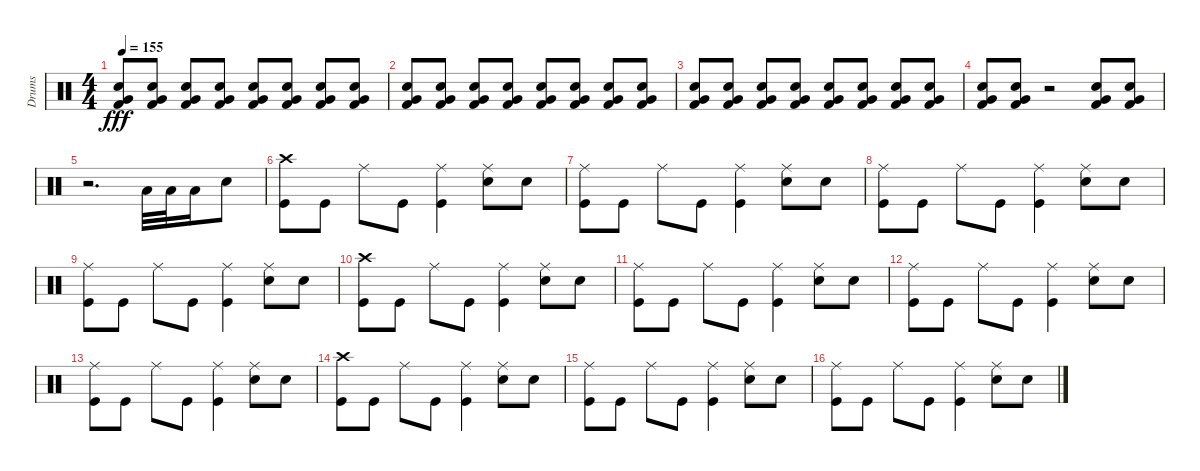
\track ("Drums               " "Drums     ") {instrument percussion}
\staff {score}
\articulation defaults
\ts (4 4)
\tempo 155
\clef neutral
\ks c
("Very Low Tom (hit)" "Electric Snare (hit)" "Kick (hit) 2").8{dy fff} ("Very Low Tom (hit)" "Electric Snare (hit)" "Kick (hit) 2").8 ("Very Low Tom (hit)" "Electric Snare (hit)" "Kick (hit) 2").8 ("Very Low Tom (hit)" "Electric Snare (hit)" "Kick (hit) 2").8 ("Very Low Tom (hit)" "Electric Snare (hit)" "Kick (hit) 2").8 ("Very Low Tom (hit)" "Electric Snare (hit)" "Kick (hit) 2").8 ("Very Low Tom (hit)" "Electric Snare (hit)" "Kick (hit) 2").8 ("Very Low Tom (hit)" "Electric Snare (hit)" "Kick (hit) 2").8 |
("Very Low Tom (hit)" "Electric Snare (hit)" "Kick (hit) 2").8 ("Very Low Tom (hit)" "Electric Snare (hit)" "Kick (hit) 2").8 ("Very Low Tom (hit)" "Electric Snare (hit)" "Kick (hit) 2").8 ("Very Low Tom (hit)" "Electric Snare (hit)" "Kick (hit) 2").8 ("Very Low Tom (hit)" "Electric Snare (hit)" "Kick (hit) 2").8 ("Very Low Tom (hit)" "Electric Snare (hit)" "Kick (hit) 2").8 ("Very Low Tom (hit)" "Electric Snare (hit)" "Kick (hit) 2").8 ("Very Low Tom (hit)" "Electric Snare (hit)" "Kick (hit) 2").8 |
("Very Low Tom (hit)" "Electric Snare (hit)" "Kick (hit) 2").8 ("Very Low Tom (hit)" "Electric Snare (hit)" "Kick (hit) 2").8 ("Very Low Tom (hit)" "Electric Snare (hit)" "Kick (hit) 2").8 ("Very Low Tom (hit)" "Electric Snare (hit)" "Kick (hit) 2").8 ("Very Low Tom (hit)" "Electric Snare (hit)" "Kick (hit) 2").8 ("Very Low Tom (hit)" "Electric Snare (hit)" "Kick (hit) 2").8 ("Very Low Tom (hit)" "Electric Snare (hit)" "Kick (hit) 2").8 ("Very Low Tom (hit)" "Electric Snare (hit)" "Kick (hit) 2").8 |
("Very Low Tom (hit)" "Electric Snare (hit)" "Kick (hit) 2").8 ("Very Low Tom (hit)" "Electric Snare (hit)" "Kick (hit) 2").8 r.2 ("Very Low Tom (hit)" "Electric Snare (hit)" "Kick (hit) 2").8 ("Very Low Tom (hit)" "Electric Snare (hit)" "Kick (hit) 2").8 |
r.2{d} "Low Tom (hit)".32 "Low Tom (hit)".32 "Low Tom (hit)".16 "Snare (hit) 2".8 |
("Kick (hit)" "Crash high (hit)").8 "Kick (hit)".8 "Ride (middle)".8 "Kick (hit)".8 ("Kick (hit)" "Ride (middle)").4 ("Snare (hit) 2" "Ride (middle)").8 "Snare (hit) 2".8 |
("Kick (hit)" "Ride (middle)").8 "Kick (hit)".8 "Ride (middle)".8 "Kick (hit)".8 ("Kick (hit)" "Ride (middle)").4 ("Snare (hit) 2" "Ride (middle)").8 "Snare (hit) 2".8 |
("Kick (hit)" "Ride (middle)").8 "Kick (hit)".8 "Ride (middle)".8 "Kick (hit)".8 ("Kick (hit)" "Ride (middle)").4 ("Snare (hit) 2" "Ride (middle)").8 "Snare (hit) 2".8 |
("Kick (hit)" "Ride (middle)").8 "Kick (hit)".8 "Ride (middle)".8 "Kick (hit)".8 ("Kick (hit)" "Ride (middle)").4 ("Snare (hit) 2" "Ride (middle)").8 "Snare (hit) 2".8 |
("Kick (hit)" "Crash high (hit)").8 "Kick (hit)".8 "Ride (middle)".8 "Kick (hit)".8 ("Kick (hit)" "Ride (middle)").4 ("Snare (hit) 2" "Ride (middle)").8 "Snare (hit) 2".8 |
("Kick (hit)" "Ride (middle)").8 "Kick (hit)".8 "Ride (middle)".8 "Kick (hit)".8 ("Kick (hit)" "Ride (middle)").4 ("Snare (hit) 2" "Ride (middle)").8 "Snare (hit) 2".8 |
("Kick (hit)" "Ride (middle)").8 "Kick (hit)".8 "Ride (middle)".8 "Kick (hit)".8 ("Kick (hit)" "Ride (middle)").4 ("Snare (hit) 2" "Ride (middle)").8 "Snare (hit) 2".8 |
("Kick (hit)" "Ride (middle)").8 "Kick (hit)".8 "Ride (middle)".8 "Kick (hit)".8 ("Kick (hit)" "Ride (middle)").4 ("Snare (hit) 2" "Ride (middle)").8 "Snare (hit) 2".8 |
("Kick (hit)" "Crash high (hit)").8 "Kick (hit)".8 "Ride (middle)".8 "Kick (hit)".8 ("Kick (hit)" "Ride (middle)").4 ("Snare (hit) 2" "Ride (middle)").8 "Snare (hit) 2".8 |
("Kick (hit)" "Ride (middle)").8 "Kick (hit)".8 "Ride (middle)".8 "Kick (hit)".8 ("Kick (hit)" "Ride (middle)").4 ("Snare (hit) 2" "Ride (middle)").8 "Snare (hit) 2".8 |
("Kick (hit)" "Ride (middle)").8 "Kick (hit)".8 "Ride (middle)".8 "Kick (hit)".8 ("Kick (hit)" "Ride (middle)").4 ("Snare (hit) 2" "Ride (middle)").8 "Snare (hit) 2".8
